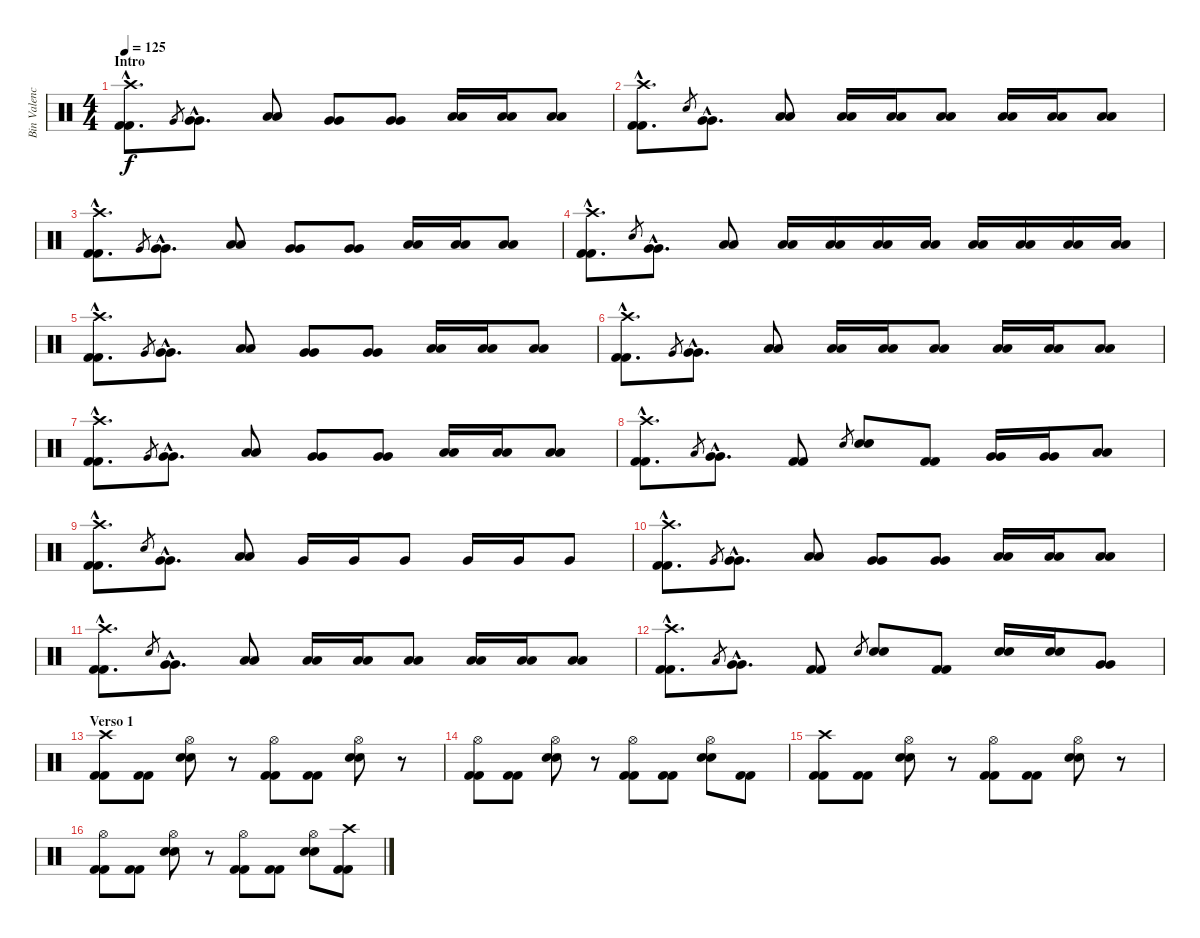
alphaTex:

\track ("Bin Valencia (Bateria)" "Bin Valenc") {instrument percussion}
\staff {score}
\articulation defaults
\ts (4 4)
\section ("" "Intro")
\tempo 125
\clef neutral
\ks c
("Crash high (hit)"{hac} "Kick (hit) 2"{hac} "Kick (hit) 2"{hac}).8{d dy f} "Very Low Tom (hit)".8{gr} ("Very Low Tom (hit)"{hac} "Very Low Tom (hit)"{hac}).8{d} ("Low Tom (hit)" "Low Tom (hit)").8 ("Very Low Tom (hit)" "Very Low Tom (hit)").8 ("Very Low Tom (hit)" "Very Low Tom (hit)").8 ("Low Floor Tom (hit)" "Low Floor Tom (hit)").16 ("Low Floor Tom (hit)" "Low Floor Tom (hit)").16 ("Low Floor Tom (hit)" "Low Floor Tom (hit)").8 |
("Crash high (hit)"{hac} "Kick (hit) 2"{hac} "Kick (hit) 2"{hac}).8{d} "Metronome (bell)".8{gr} ("Very Low Tom (hit)"{hac} "Very Low Tom (hit)"{hac}).8{d} ("Low Tom (hit)" "Low Tom (hit)").8 ("Low Floor Tom (hit)" "Low Floor Tom (hit)").16 ("Low Floor Tom (hit)" "Low Floor Tom (hit)").16 ("Low Floor Tom (hit)" "Low Floor Tom (hit)").8 ("Low Floor Tom (hit)" "Low Floor Tom (hit)").16 ("Low Floor Tom (hit)" "Low Floor Tom (hit)").16 ("Low Floor Tom (hit)" "Low Floor Tom (hit)").8 |
("Crash high (hit)"{hac} "Kick (hit) 2"{hac} "Kick (hit) 2"{hac}).8{d} "Very Low Tom (hit)".8{gr} ("Very Low Tom (hit)"{hac} "Very Low Tom (hit)"{hac}).8{d} ("Low Tom (hit)" "Low Tom (hit)").8 ("Very Low Tom (hit)" "Very Low Tom (hit)").8 ("Very Low Tom (hit)" "Very Low Tom (hit)").8 ("Low Floor Tom (hit)" "Low Floor Tom (hit)").16 ("Low Floor Tom (hit)" "Low Floor Tom (hit)").16 ("Low Floor Tom (hit)" "Low Floor Tom (hit)").8 |
("Crash high (hit)"{hac} "Kick (hit) 2"{hac} "Kick (hit) 2"{hac}).8{d} "Metronome (bell)".8{gr} ("Very Low Tom (hit)"{hac} "Very Low Tom (hit)"{hac}).8{d} ("Low Tom (hit)" "Low Tom (hit)").8 ("Low Floor Tom (hit)" "Low Floor Tom (hit)").16 ("Low Floor Tom (hit)" "Low Floor Tom (hit)").16 ("Low Floor Tom (hit)" "Low Floor Tom (hit)").16 ("Low Floor Tom (hit)" "Low Floor Tom (hit)").16 ("Low Floor Tom (hit)" "Low Floor Tom (hit)").16 ("Low Floor Tom (hit)" "Low Floor Tom (hit)").16 ("Low Floor Tom (hit)" "Low Floor Tom (hit)").16 ("Low Floor Tom (hit)" "Low Floor Tom (hit)").16 |
("Crash high (hit)"{hac} "Kick (hit) 2"{hac} "Kick (hit) 2"{hac}).8{d} "Very Low Tom (hit)".8{gr} ("Very Low Tom (hit)"{hac} "Very Low Tom (hit)"{hac}).8{d} ("Low Tom (hit)" "Low Tom (hit)").8 ("Very Low Tom (hit)" "Very Low Tom (hit)").8 ("Very Low Tom (hit)" "Very Low Tom (hit)").8 ("Low Floor Tom (hit)" "Low Floor Tom (hit)").16 ("Low Floor Tom (hit)" "Low Floor Tom (hit)").16 ("Low Floor Tom (hit)" "Low Floor Tom (hit)").8 |
("Crash high (hit)"{hac} "Kick (hit) 2"{hac} "Kick (hit) 2"{hac}).8{d} "Very Low Tom (hit)".8{gr} ("Very Low Tom (hit)"{hac} "Very Low Tom (hit)"{hac}).8{d} ("Low Tom (hit)" "Low Tom (hit)").8 ("Low Floor Tom (hit)" "Low Floor Tom (hit)").16 ("Low Floor Tom (hit)" "Low Floor Tom (hit)").16 ("Low Floor Tom (hit)" "Low Floor Tom (hit)").8 ("Low Floor Tom (hit)" "Low Floor Tom (hit)").16 ("Low Floor Tom (hit)" "Low Floor Tom (hit)").16 ("Low Floor Tom (hit)" "Low Floor Tom (hit)").8 |
("Crash high (hit)"{hac} "Kick (hit) 2"{hac} "Kick (hit) 2"{hac}).8{d} "Very Low Tom (hit)".8{gr} ("Very Low Tom (hit)"{hac} "Very Low Tom (hit)"{hac}).8{d} ("Low Tom (hit)" "Low Tom (hit)").8 ("Very Low Tom (hit)" "Very Low Tom (hit)").8 ("Very Low Tom (hit)" "Very Low Tom (hit)").8 ("Low Floor Tom (hit)" "Low Floor Tom (hit)").16 ("Low Floor Tom (hit)" "Low Floor Tom (hit)").16 ("Low Floor Tom (hit)" "Low Floor Tom (hit)").8 |
("Crash high (hit)"{hac} "Kick (hit) 2"{hac} "Kick (hit) 2"{hac}).8{d} "Low Tom (hit)".8{gr} ("Very Low Tom (hit)"{hac} "Very Low Tom (hit)"{hac}).8{d} ("Kick (hit) 2" "Kick (hit) 2").8 "Snare (hit) 2".8{gr} ("Snare (hit) 2" "Snare (hit) 2").8 ("Kick (hit) 2" "Kick (hit) 2").8 ("Very Low Tom (hit)" "Very Low Tom (hit)").16 ("Very Low Tom (hit)" "Very Low Tom (hit)").16 ("Low Floor Tom (hit)" "Low Floor Tom (hit)").8 |
("Crash high (hit)"{hac} "Kick (hit) 2"{hac} "Kick (hit) 2"{hac}).8{d} "Metronome (bell)".8{gr} ("Very Low Tom (hit)"{hac} "Very Low Tom (hit)"{hac}).8{d} ("Low Tom (hit)" "Low Tom (hit)").8 "Very Low Tom (hit)".16 "Very Low Tom (hit)".16 "Very Low Tom (hit)".8 "Very Low Tom (hit)".16 "Very Low Tom (hit)".16 "Very Low Tom (hit)".8 |
("Crash high (hit)"{hac} "Kick (hit) 2"{hac} "Kick (hit) 2"{hac}).8{d} "Very Low Tom (hit)".8{gr} ("Very Low Tom (hit)"{hac} "Very Low Tom (hit)"{hac}).8{d} ("Low Tom (hit)" "Low Tom (hit)").8 ("Very Low Tom (hit)" "Very Low Tom (hit)").8 ("Very Low Tom (hit)" "Very Low Tom (hit)").8 ("Low Floor Tom (hit)" "Low Floor Tom (hit)").16 ("Low Floor Tom (hit)" "Low Floor Tom (hit)").16 ("Low Floor Tom (hit)" "Low Floor Tom (hit)").8 |
("Crash high (hit)"{hac} "Kick (hit) 2"{hac} "Kick (hit) 2"{hac}).8{d} "Metronome (bell)".8{gr} ("Very Low Tom (hit)"{hac} "Very Low Tom (hit)"{hac}).8{d} ("Low Tom (hit)" "Low Tom (hit)").8 ("Low Floor Tom (hit)" "Low Floor Tom (hit)").16 ("Low Floor Tom (hit)" "Low Floor Tom (hit)").16 ("Low Floor Tom (hit)" "Low Floor Tom (hit)").8 ("Low Floor Tom (hit)" "Low Floor Tom (hit)").16 ("Low Floor Tom (hit)" "Low Floor Tom (hit)").16 ("Low Floor Tom (hit)" "Low Floor Tom (hit)").8 |
("Crash high (hit)"{hac} "Kick (hit) 2"{hac} "Kick (hit) 2"{hac}).8{d} "Low Tom (hit)".8{gr} ("Very Low Tom (hit)"{hac} "Very Low Tom (hit)"{hac}).8{d} ("Kick (hit) 2" "Kick (hit) 2").8 "Snare (hit) 2".8{gr} ("Snare (hit) 2" "Snare (hit) 2").8 ("Kick (hit) 2" "Kick (hit) 2").8 ("Snare (hit) 2" "Snare (hit) 2").16 ("Snare (hit) 2" "Snare (hit) 2").16 ("Very Low Tom (hit)" "Very Low Tom (hit)").8 |
\section ("" "Verso 1")
("Crash high (hit)" "Kick (hit) 2" "Kick (hit) 2").8 ("Kick (hit) 2" "Kick (hit) 2").8 ("Hi-Hat (open)" "Snare (hit) 2" "Snare (hit) 2").8 r.8 ("Hi-Hat (open)" "Kick (hit) 2" "Kick (hit) 2").8 ("Kick (hit) 2" "Kick (hit) 2").8 ("Hi-Hat (open)" "Snare (hit) 2" "Snare (hit) 2").8 r.8 |
("Hi-Hat (open)" "Kick (hit) 2" "Kick (hit) 2").8 ("Kick (hit) 2" "Kick (hit) 2").8 ("Hi-Hat (open)" "Snare (hit) 2" "Snare (hit) 2").8 r.8 ("Hi-Hat (open)" "Kick (hit) 2" "Kick (hit) 2").8 ("Kick (hit) 2" "Kick (hit) 2").8 ("Hi-Hat (open)" "Snare (hit) 2" "Snare (hit) 2").8 ("Kick (hit) 2" "Kick (hit) 2").8 |
("Crash high (hit)" "Kick (hit) 2" "Kick (hit) 2").8 ("Kick (hit) 2" "Kick (hit) 2").8 ("Hi-Hat (open)" "Snare (hit) 2" "Snare (hit) 2").8 r.8 ("Hi-Hat (open)" "Kick (hit) 2" "Kick (hit) 2").8 ("Kick (hit) 2" "Kick (hit) 2").8 ("Hi-Hat (open)" "Snare (hit) 2" "Snare (hit) 2").8 r.8 |
("Hi-Hat (open)" "Kick (hit) 2" "Kick (hit) 2").8 ("Kick (hit) 2" "Kick (hit) 2").8 ("Hi-Hat (open)" "Snare (hit) 2" "Snare (hit) 2").8 r.8 ("Hi-Hat (open)" "Kick (hit) 2" "Kick (hit) 2").8 ("Kick (hit) 2" "Kick (hit) 2").8 ("Hi-Hat (open)" "Snare (hit) 2" "Snare (hit) 2").8 ("Crash high (hit)" "Kick (hit) 2" "Kick (hit) 2").8
